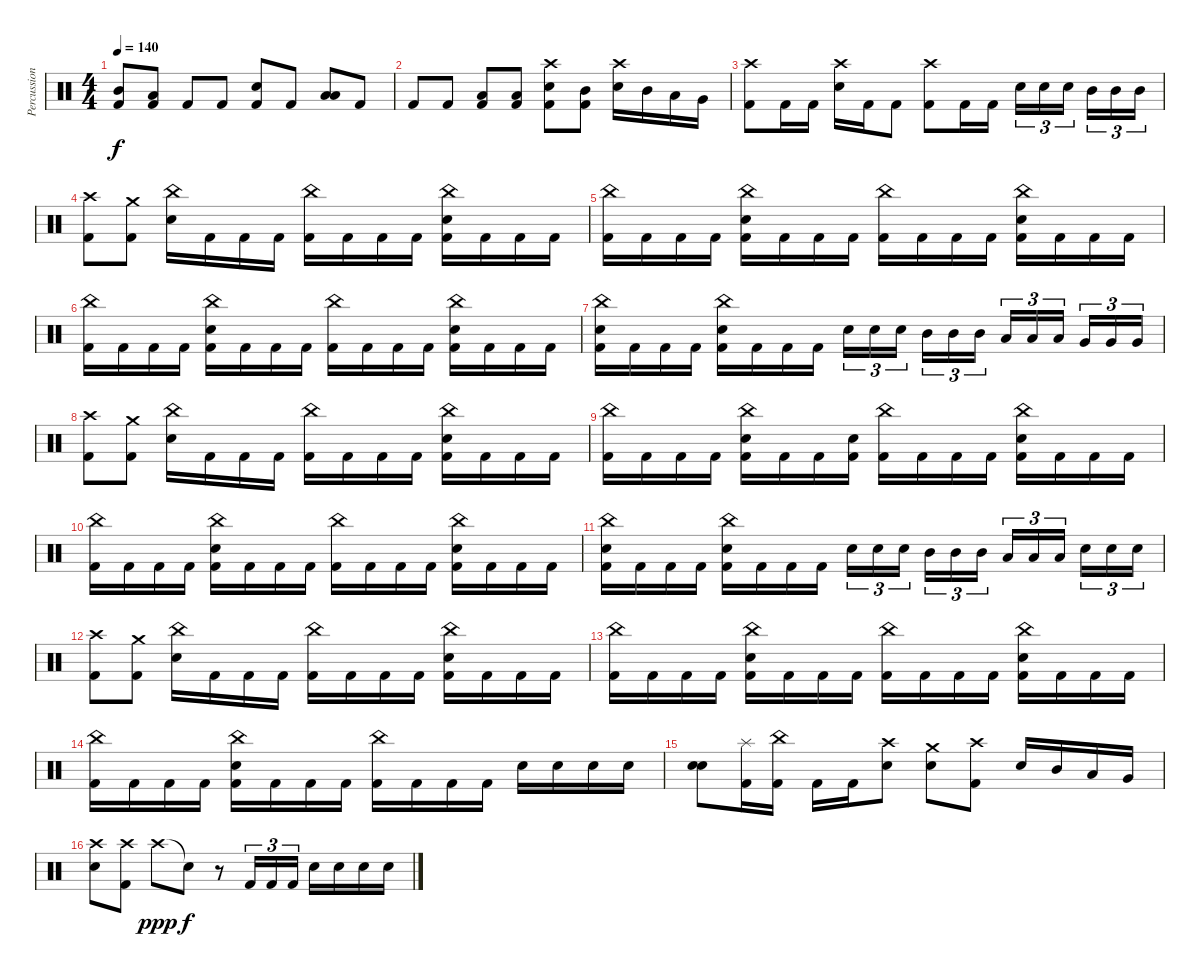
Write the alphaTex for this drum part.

\track ("Percussions" "Percussion") {instrument percussion}
\staff {score}
\articulation defaults
\ts (4 4)
\tempo 140
\clef neutral
\ks c
("Mid Tom (hit)" "Kick (hit) 2").8{dy f} ("Low Tom (hit)" "Kick (hit) 2").8 "Kick (hit) 2".8 "Kick (hit) 2".8 ("Snare (hit) 2" "Kick (hit) 2").8 "Kick (hit) 2".8 ("Low Tom (hit)" "Low Tom (hit)").8{bd 120} "Kick (hit) 2".8 |
"Kick (hit) 2".8 "Kick (hit) 2".8 ("Low Floor Tom (hit)" "Kick (hit) 2").8 ("Low Floor Tom (hit)" "Kick (hit) 2").8 ("Crash high (hit)" "Snare (hit) 2" "Kick (hit) 2").8 ("Mid Tom (hit)" "Kick (hit) 2").8 ("Crash high (hit)" "Snare (hit) 2").16 "Mid Tom (hit)".16 "Low Tom (hit)".16 "Very Low Tom (hit)".16 |
("Crash high (hit)" "Kick (hit) 2").8 "Kick (hit) 2".16 "Kick (hit) 2".16 ("Crash high (hit)" "Snare (hit) 2").16 "Kick (hit) 2".16 "Kick (hit) 2".8 ("Crash high (hit)" "Kick (hit) 2").8 "Kick (hit) 2".16 "Kick (hit) 2".16 "Snare (hit) 2".16{tu (3 2)} "Snare (hit) 2".16{tu (3 2)} "Snare (hit) 2".16{tu (3 2)} "Mid Tom (hit)".16{tu (3 2)} "Mid Tom (hit)".16{tu (3 2)} "Mid Tom (hit)".16{tu (3 2)} |
("Crash high (hit)" "Kick (hit) 2").8 ("Crash medium (hit)" "Kick (hit) 2").8 ("China (hit)" "Snare (hit) 2").16 "Kick (hit) 2".16 "Kick (hit) 2".16 "Kick (hit) 2".16 ("China (hit)" "Kick (hit) 2").16 "Kick (hit) 2".16 "Kick (hit) 2".16 "Kick (hit) 2".16 ("China (hit)" "Snare (hit) 2" "Kick (hit) 2").16 "Kick (hit) 2".16 "Kick (hit) 2".16 "Kick (hit) 2".16 |
("China (hit)" "Kick (hit) 2").16 "Kick (hit) 2".16 "Kick (hit) 2".16 "Kick (hit) 2".16 ("China (hit)" "Snare (hit) 2" "Kick (hit) 2").16 "Kick (hit) 2".16 "Kick (hit) 2".16 "Kick (hit) 2".16 ("China (hit)" "Kick (hit) 2").16 "Kick (hit) 2".16 "Kick (hit) 2".16 "Kick (hit) 2".16 ("China (hit)" "Snare (hit) 2" "Kick (hit) 2").16 "Kick (hit) 2".16 "Kick (hit) 2".16 "Kick (hit) 2".16 |
("China (hit)" "Kick (hit) 2").16 "Kick (hit) 2".16 "Kick (hit) 2".16 "Kick (hit) 2".16 ("China (hit)" "Snare (hit) 2" "Kick (hit) 2").16 "Kick (hit) 2".16 "Kick (hit) 2".16 "Kick (hit) 2".16 ("China (hit)" "Kick (hit) 2").16 "Kick (hit) 2".16 "Kick (hit) 2".16 "Kick (hit) 2".16 ("China (hit)" "Snare (hit) 2" "Kick (hit) 2").16 "Kick (hit) 2".16 "Kick (hit) 2".16 "Kick (hit) 2".16 |
("China (hit)" "Snare (hit) 2" "Kick (hit) 2").16 "Kick (hit) 2".16 "Kick (hit) 2".16 "Kick (hit) 2".16 ("China (hit)" "Snare (hit) 2" "Kick (hit) 2").16 "Kick (hit) 2".16 "Kick (hit) 2".16 "Kick (hit) 2".16 "Snare (hit) 2".16{tu (3 2)} "Snare (hit) 2".16{tu (3 2)} "Snare (hit) 2".16{tu (3 2)} "Mid Tom (hit)".16{tu (3 2)} "Mid Tom (hit)".16{tu (3 2)} "Mid Tom (hit)".16{tu (3 2)} "Low Tom (hit)".16{tu (3 2)} "Low Tom (hit)".16{tu (3 2)} "Low Tom (hit)".16{tu (3 2)} "Very Low Tom (hit)".16{tu (3 2)} "Very Low Tom (hit)".16{tu (3 2)} "Very Low Tom (hit)".16{tu (3 2)} |
("Crash high (hit)" "Kick (hit) 2").8 ("Crash medium (hit)" "Kick (hit) 2").8 ("China (hit)" "Snare (hit) 2").16 "Kick (hit) 2".16 "Kick (hit) 2".16 "Kick (hit) 2".16 ("China (hit)" "Kick (hit) 2").16 "Kick (hit) 2".16 "Kick (hit) 2".16 "Kick (hit) 2".16 ("China (hit)" "Snare (hit) 2" "Kick (hit) 2").16 "Kick (hit) 2".16 "Kick (hit) 2".16 "Kick (hit) 2".16 |
("China (hit)" "Kick (hit) 2").16 "Kick (hit) 2".16 "Kick (hit) 2".16 "Kick (hit) 2".16 ("China (hit)" "Snare (hit) 2" "Kick (hit) 2").16 "Kick (hit) 2".16 "Kick (hit) 2".16 ("Snare (hit) 2" "Kick (hit) 2").16 ("China (hit)" "Kick (hit) 2").16 "Kick (hit) 2".16 "Kick (hit) 2".16 "Kick (hit) 2".16 ("China (hit)" "Snare (hit) 2" "Kick (hit) 2").16 "Kick (hit) 2".16 "Kick (hit) 2".16 "Kick (hit) 2".16 |
("China (hit)" "Kick (hit) 2").16 "Kick (hit) 2".16 "Kick (hit) 2".16 "Kick (hit) 2".16 ("China (hit)" "Snare (hit) 2" "Kick (hit) 2").16 "Kick (hit) 2".16 "Kick (hit) 2".16 "Kick (hit) 2".16 ("China (hit)" "Kick (hit) 2").16 "Kick (hit) 2".16 "Kick (hit) 2".16 "Kick (hit) 2".16 ("China (hit)" "Snare (hit) 2" "Kick (hit) 2").16 "Kick (hit) 2".16 "Kick (hit) 2".16 "Kick (hit) 2".16 |
("China (hit)" "Snare (hit) 2" "Kick (hit) 2").16 "Kick (hit) 2".16 "Kick (hit) 2".16 "Kick (hit) 2".16 ("China (hit)" "Snare (hit) 2" "Kick (hit) 2").16 "Kick (hit) 2".16 "Kick (hit) 2".16 "Kick (hit) 2".16 "Snare (hit) 2".16{tu (3 2)} "Snare (hit) 2".16{tu (3 2)} "Snare (hit) 2".16{tu (3 2)} "Mid Tom (hit)".16{tu (3 2)} "Mid Tom (hit)".16{tu (3 2)} "Mid Tom (hit)".16{tu (3 2)} "Low Tom (hit)".16{tu (3 2)} "Low Tom (hit)".16{tu (3 2)} "Low Tom (hit)".16{tu (3 2)} "Snare (hit) 2".16{tu (3 2)} "Snare (hit) 2".16{tu (3 2)} "Snare (hit) 2".16{tu (3 2)} |
("Crash high (hit)" "Kick (hit) 2").8 ("Crash medium (hit)" "Kick (hit) 2").8 ("China (hit)" "Snare (hit) 2").16 "Kick (hit) 2".16 "Kick (hit) 2".16 "Kick (hit) 2".16 ("China (hit)" "Kick (hit) 2").16 "Kick (hit) 2".16 "Kick (hit) 2".16 "Kick (hit) 2".16 ("China (hit)" "Snare (hit) 2" "Kick (hit) 2").16 "Kick (hit) 2".16 "Kick (hit) 2".16 "Kick (hit) 2".16 |
("China (hit)" "Kick (hit) 2").16 "Kick (hit) 2".16 "Kick (hit) 2".16 "Kick (hit) 2".16 ("China (hit)" "Snare (hit) 2" "Kick (hit) 2").16 "Kick (hit) 2".16 "Kick (hit) 2".16 "Kick (hit) 2".16 ("China (hit)" "Kick (hit) 2").16 "Kick (hit) 2".16 "Kick (hit) 2".16 "Kick (hit) 2".16 ("China (hit)" "Snare (hit) 2" "Kick (hit) 2").16 "Kick (hit) 2".16 "Kick (hit) 2".16 "Kick (hit) 2".16 |
("China (hit)" "Kick (hit) 2").16 "Kick (hit) 2".16 "Kick (hit) 2".16 "Kick (hit) 2".16 ("China (hit)" "Snare (hit) 2" "Kick (hit) 2").16 "Kick (hit) 2".16 "Kick (hit) 2".16 "Kick (hit) 2".16 ("China (hit)" "Kick (hit) 2").16 "Kick (hit) 2".16 "Kick (hit) 2".16 "Kick (hit) 2".16 "Snare (hit) 2".16 "Snare (hit) 2".16 "Snare (hit) 2".16 "Snare (hit) 2".16 |
("Snare (hit) 2" "Snare (hit) 2").8{bd 120} ("Splash (hit)" "Kick (hit) 2").16 ("China (hit)" "Kick (hit) 2").16 "Kick (hit) 2".16 "Kick (hit) 2".16 ("Crash high (hit)" "Snare (hit) 2").8 ("Crash medium (hit)" "Snare (hit) 2").8 ("Crash high (hit)" "Kick (hit) 2").8 "Snare (hit) 2".16 "Mid Tom (hit)".16 "Low Tom (hit)".16 "Very Low Tom (hit)".16 |
("Crash high (hit)" "Snare (hit) 2").8 ("Crash high (hit)" "Kick (hit) 2").8 "Crash high (hit)".8{dy ppp} "Snare (hit)"{t}.8{dy f} r.8 "Kick (hit) 2".16{tu (3 2)} "Kick (hit) 2".16{tu (3 2)} "Kick (hit) 2".16{tu (3 2)} "Snare (hit) 2".16 "Snare (hit) 2".16 "Snare (hit) 2".16 "Snare (hit) 2".16
